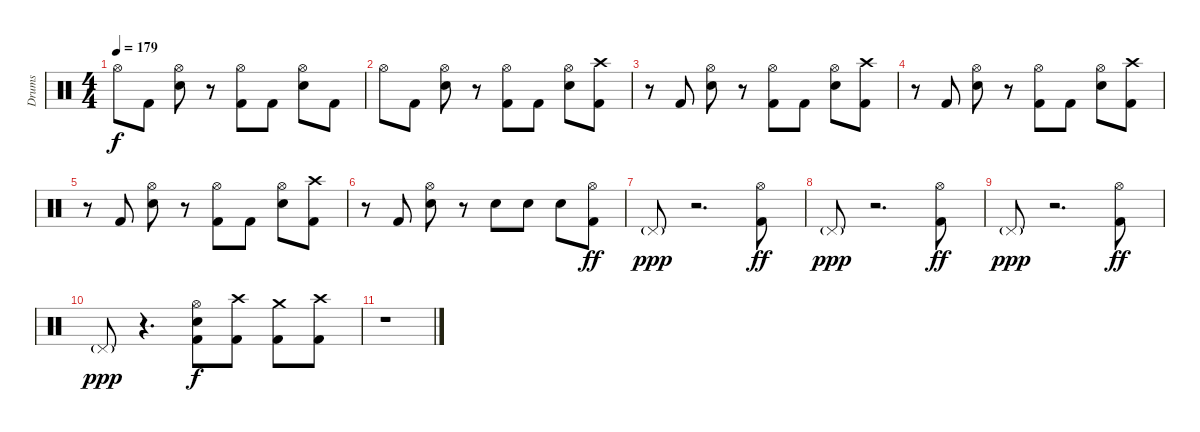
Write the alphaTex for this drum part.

\track ("Drums" "Drums") {instrument percussion}
\staff {score}
\articulation defaults
\ts (4 4)
\tempo 179
\clef neutral
\ks c "Hi-Hat (open)".8{dy f} "Kick (hit) 2".8
("Hi-Hat (open)" "Snare (hit) 2").8 r.8 ("Hi-Hat (open)" "Kick (hit) 2").8 "Kick (hit) 2".8 ("Hi-Hat (open)" "Snare (hit) 2").8 "Kick (hit) 2".8 |
"Hi-Hat (open)".8 "Kick (hit) 2".8 ("Hi-Hat (open)" "Snare (hit) 2").8 r.8 ("Hi-Hat (open)" "Kick (hit) 2").8 "Kick (hit) 2".8 ("Hi-Hat (open)" "Snare (hit) 2").8 ("Crash high (hit)" "Kick (hit) 2").8 |
r.8 "Kick (hit) 2".8 ("Hi-Hat (open)" "Snare (hit) 2").8 r.8 ("Hi-Hat (open)" "Kick (hit) 2").8 "Kick (hit) 2".8 ("Hi-Hat (open)" "Snare (hit) 2").8 ("Crash high (hit)" "Kick (hit) 2").8 |
r.8 "Kick (hit) 2".8 ("Hi-Hat (open)" "Snare (hit) 2").8 r.8 ("Hi-Hat (open)" "Kick (hit) 2").8 "Kick (hit) 2".8 ("Hi-Hat (open)" "Snare (hit) 2").8 ("Crash high (hit)" "Kick (hit) 2").8 |
r.8 "Kick (hit) 2".8 ("Hi-Hat (open)" "Snare (hit) 2").8 r.8 ("Hi-Hat (open)" "Kick (hit) 2").8 "Kick (hit) 2".8 ("Hi-Hat (open)" "Snare (hit) 2").8 ("Crash high (hit)" "Kick (hit) 2").8 |
r.8 "Kick (hit) 2".8 ("Hi-Hat (open)" "Snare (hit) 2").8 r.8 "Snare (hit) 2".8 "Snare (hit) 2".8 "Snare (hit) 2".8 ("Hi-Hat (open)" "Kick (hit) 2").8{dy ff} |
"Pedal Hi-Hat (hit)"{g}.8{dy ppp} r.2{d} ("Hi-Hat (open)" "Kick (hit) 2").8{dy ff} |
"Pedal Hi-Hat (hit)"{g}.8{dy ppp} r.2{d} ("Hi-Hat (open)" "Kick (hit) 2").8{dy ff} |
"Pedal Hi-Hat (hit)"{g}.8{dy ppp} r.2{d} ("Hi-Hat (open)" "Kick (hit) 2").8{dy ff} |
"Pedal Hi-Hat (hit)"{g}.8{dy ppp} r.4{d} ("Hi-Hat (open)" "Snare (hit) 2" "Kick (hit) 2").8{dy f} ("Crash high (hit)" "Kick (hit) 2").8 ("Crash medium (hit)" "Kick (hit) 2").8 ("Crash high (hit)" "Kick (hit) 2").8 |
r.1
